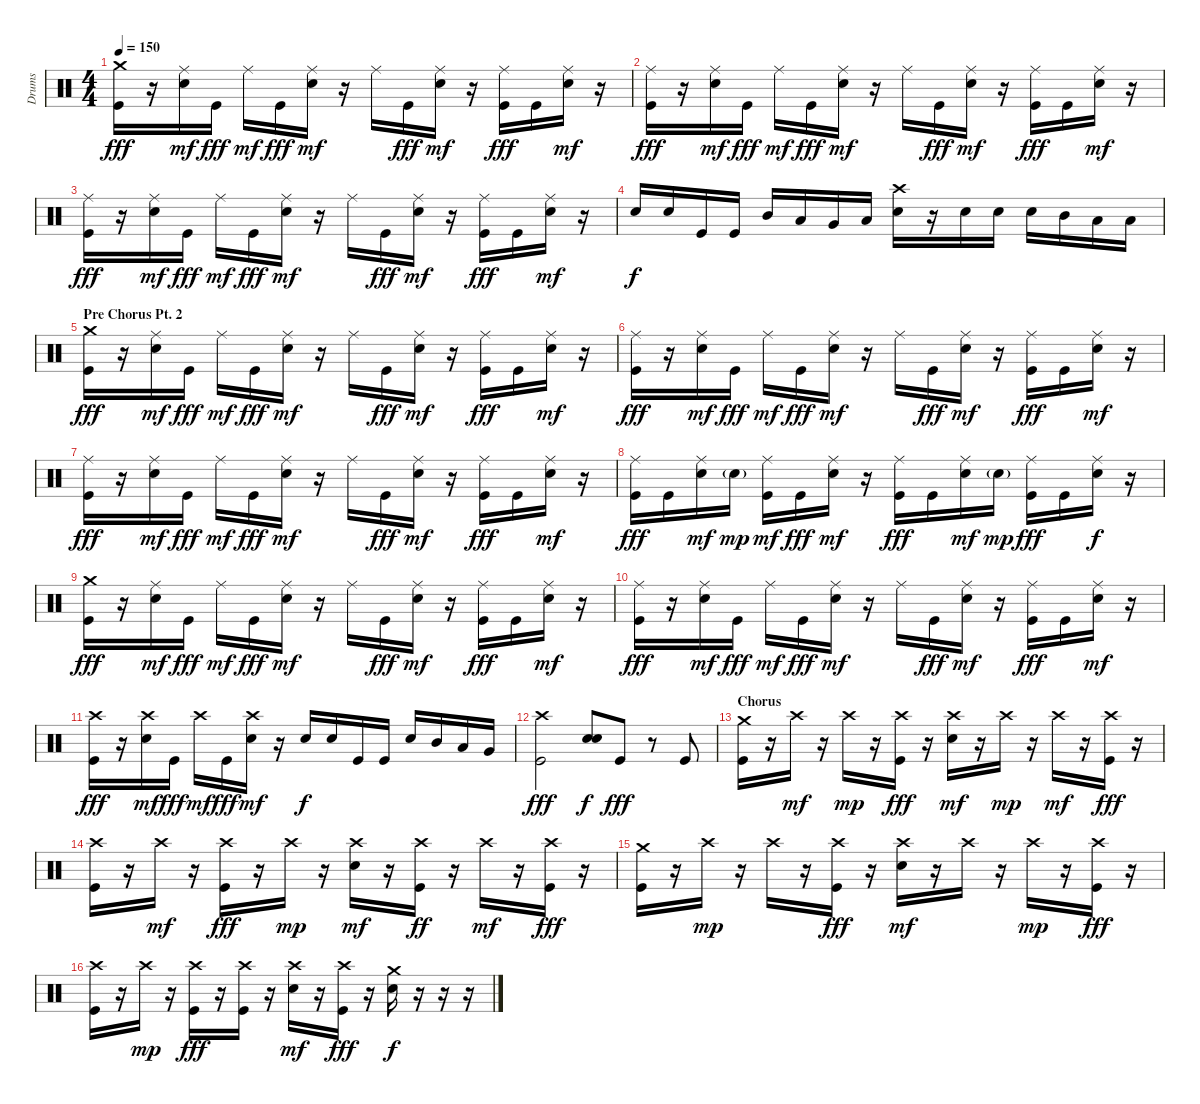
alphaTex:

\track ("Drums" "Drums") {instrument percussion}
\staff {score}
\articulation defaults
\ts (4 4)
\tempo 150
\clef neutral
\ks c
("Crash medium (hit)" "Kick (hit)").16{dy fff} r.16 ("Ride (middle)" "Electric Snare (hit)").16{dy mf} "Kick (hit)".16{dy fff} "Ride (middle)".16{dy mf} "Kick (hit)".16{dy fff} ("Ride (middle)" "Electric Snare (hit)").16{dy mf} r.16 "Ride (middle)".16 "Kick (hit)".16{dy fff} ("Ride (middle)" "Electric Snare (hit)").16{dy mf} r.16 ("Ride (middle)" "Kick (hit)").16{dy fff} "Kick (hit)".16 ("Ride (middle)" "Electric Snare (hit)").16{dy mf} r.16 |
("Ride (middle)" "Kick (hit)").16{dy fff} r.16 ("Ride (middle)" "Electric Snare (hit)").16{dy mf} "Kick (hit)".16{dy fff} "Ride (middle)".16{dy mf} "Kick (hit)".16{dy fff} ("Ride (middle)" "Electric Snare (hit)").16{dy mf} r.16 "Ride (middle)".16 "Kick (hit)".16{dy fff} ("Ride (middle)" "Electric Snare (hit)").16{dy mf} r.16 ("Ride (middle)" "Kick (hit)").16{dy fff} "Kick (hit)".16 ("Ride (middle)" "Electric Snare (hit)").16{dy mf} r.16 |
("Ride (middle)" "Kick (hit)").16{dy fff} r.16 ("Ride (middle)" "Electric Snare (hit)").16{dy mf} "Kick (hit)".16{dy fff} "Ride (middle)".16{dy mf} "Kick (hit)".16{dy fff} ("Ride (middle)" "Electric Snare (hit)").16{dy mf} r.16 "Ride (middle)".16 "Kick (hit)".16{dy fff} ("Ride (middle)" "Electric Snare (hit)").16{dy mf} r.16 ("Ride (middle)" "Kick (hit)").16{dy fff} "Kick (hit)".16 ("Ride (middle)" "Electric Snare (hit)").16{dy mf} r.16 |
"Electric Snare (hit)".16{dy f} "Electric Snare (hit)".16 "Kick (hit)".16 "Kick (hit)".16 "Mid Tom (hit)".16 "Low Tom (hit)".16 "Very Low Tom (hit)".16 "Low Floor Tom (hit)".16 ("Crash high (hit)" "Electric Snare (hit)").16 r.16 "Electric Snare (hit)".16 "Electric Snare (hit)".16 "Electric Snare (hit)".16 "Mid Tom (hit)".16 "Low Tom (hit)".16 "Low Floor Tom (hit)".16 |
\section ("" "Pre Chorus Pt. 2")
("Crash medium (hit)" "Kick (hit)").16{dy fff} r.16 ("Ride (middle)" "Electric Snare (hit)").16{dy mf} "Kick (hit)".16{dy fff} "Ride (middle)".16{dy mf} "Kick (hit)".16{dy fff} ("Ride (middle)" "Electric Snare (hit)").16{dy mf} r.16 "Ride (middle)".16 "Kick (hit)".16{dy fff} ("Ride (middle)" "Electric Snare (hit)").16{dy mf} r.16 ("Ride (middle)" "Kick (hit)").16{dy fff} "Kick (hit)".16 ("Ride (middle)" "Electric Snare (hit)").16{dy mf} r.16 |
("Ride (middle)" "Kick (hit)").16{dy fff} r.16 ("Ride (middle)" "Electric Snare (hit)").16{dy mf} "Kick (hit)".16{dy fff} "Ride (middle)".16{dy mf} "Kick (hit)".16{dy fff} ("Ride (middle)" "Electric Snare (hit)").16{dy mf} r.16 "Ride (middle)".16 "Kick (hit)".16{dy fff} ("Ride (middle)" "Electric Snare (hit)").16{dy mf} r.16 ("Ride (middle)" "Kick (hit)").16{dy fff} "Kick (hit)".16 ("Ride (middle)" "Electric Snare (hit)").16{dy mf} r.16 |
("Ride (middle)" "Kick (hit)").16{dy fff} r.16 ("Ride (middle)" "Electric Snare (hit)").16{dy mf} "Kick (hit)".16{dy fff} "Ride (middle)".16{dy mf} "Kick (hit)".16{dy fff} ("Ride (middle)" "Electric Snare (hit)").16{dy mf} r.16 "Ride (middle)".16 "Kick (hit)".16{dy fff} ("Ride (middle)" "Electric Snare (hit)").16{dy mf} r.16 ("Ride (middle)" "Kick (hit)").16{dy fff} "Kick (hit)".16 ("Ride (middle)" "Electric Snare (hit)").16{dy mf} r.16 |
("Ride (middle)" "Kick (hit)").16{dy fff} "Kick (hit)".16 ("Ride (middle)" "Electric Snare (hit)").16{dy mf} "Electric Snare (hit)"{g}.16{dy mp} ("Ride (middle)" "Kick (hit)").16{dy mf} "Kick (hit)".16{dy fff} ("Ride (middle)" "Electric Snare (hit)").16{dy mf} r.16 ("Ride (middle)" "Kick (hit)").16{dy fff} "Kick (hit)".16 ("Ride (middle)" "Electric Snare (hit)").16{dy mf} "Electric Snare (hit)"{g}.16{dy mp} ("Ride (middle)" "Kick (hit)").16{dy fff} "Kick (hit)".16 ("Ride (middle)" "Electric Snare (hit)").16{dy f} r.16 |
("Crash medium (hit)" "Kick (hit)").16{dy fff} r.16 ("Ride (middle)" "Electric Snare (hit)").16{dy mf} "Kick (hit)".16{dy fff} "Ride (middle)".16{dy mf} "Kick (hit)".16{dy fff} ("Ride (middle)" "Electric Snare (hit)").16{dy mf} r.16 "Ride (middle)".16 "Kick (hit)".16{dy fff} ("Ride (middle)" "Electric Snare (hit)").16{dy mf} r.16 ("Ride (middle)" "Kick (hit)").16{dy fff} "Kick (hit)".16 ("Ride (middle)" "Electric Snare (hit)").16{dy mf} r.16 |
("Ride (middle)" "Kick (hit)").16{dy fff} r.16 ("Ride (middle)" "Electric Snare (hit)").16{dy mf} "Kick (hit)".16{dy fff} "Ride (middle)".16{dy mf} "Kick (hit)".16{dy fff} ("Ride (middle)" "Electric Snare (hit)").16{dy mf} r.16 "Ride (middle)".16 "Kick (hit)".16{dy fff} ("Ride (middle)" "Electric Snare (hit)").16{dy mf} r.16 ("Ride (middle)" "Kick (hit)").16{dy fff} "Kick (hit)".16 ("Ride (middle)" "Electric Snare (hit)").16{dy mf} r.16 |
("Crash high (hit)" "Kick (hit)").16{dy fff} r.16 ("Crash high (hit)" "Electric Snare (hit)").16{dy mf} "Kick (hit)".16{dy fff} "Crash high (hit)".16{dy mf} "Kick (hit)".16{dy fff} ("Crash high (hit)" "Electric Snare (hit)").16{dy mf} r.16 "Electric Snare (hit)".16{dy f} "Electric Snare (hit)".16 "Kick (hit)".16 "Kick (hit)".16 "Electric Snare (hit)".16 "Mid Tom (hit)".16 "Low Tom (hit)".16 "Very Low Tom (hit)".16 |
("Crash high (hit)" "Kick (hit)").2{dy fff} ("Electric Snare (hit)" "Electric Snare (hit)").8{dy f} "Kick (hit)".8{dy fff} r.8 "Kick (hit)".8 |
\section ("" "Chorus")
("Crash medium (hit)" "Kick (hit)").16 r.16 "Crash high (hit)".16{dy mf} r.16 "Crash high (hit)".16{dy mp} r.16 ("Crash high (hit)" "Kick (hit)").16{dy fff} r.16 ("Crash high (hit)" "Electric Snare (hit)").16{dy mf} r.16 "Crash high (hit)".16{dy mp} r.16 "Crash high (hit)".16{dy mf} r.16 ("Crash high (hit)" "Kick (hit)").16{dy fff} r.16 |
("Crash high (hit)" "Kick (hit)").16 r.16 "Crash high (hit)".16{dy mf} r.16 ("Crash high (hit)" "Kick (hit)").16{dy fff} r.16 "Crash high (hit)".16{dy mp} r.16 ("Crash high (hit)" "Electric Snare (hit)").16{dy mf} r.16 ("Crash high (hit)" "Kick (hit)").16{dy ff} r.16 "Crash high (hit)".16{dy mf} r.16 ("Crash high (hit)" "Kick (hit)").16{dy fff} r.16 |
("Crash medium (hit)" "Kick (hit)").16 r.16 "Crash high (hit)".16{dy mp} r.16 "Crash high (hit)".16 r.16 ("Crash high (hit)" "Kick (hit)").16{dy fff} r.16 ("Crash high (hit)" "Electric Snare (hit)").16{dy mf} r.16 "Crash high (hit)".16 r.16 "Crash high (hit)".16{dy mp} r.16 ("Crash high (hit)" "Kick (hit)").16{dy fff} r.16 |
("Crash high (hit)" "Kick (hit)").16 r.16 "Crash high (hit)".16{dy mp} r.16 ("Crash high (hit)" "Kick (hit)").16{dy fff} r.16 ("Crash high (hit)" "Kick (hit)").16 r.16 ("Crash high (hit)" "Electric Snare (hit)").16{dy mf} r.16 ("Crash high (hit)" "Kick (hit)").16{dy fff} r.16 ("Crash medium (hit)" "Electric Snare (hit)").16{dy f} r.16 r.16 r.16
